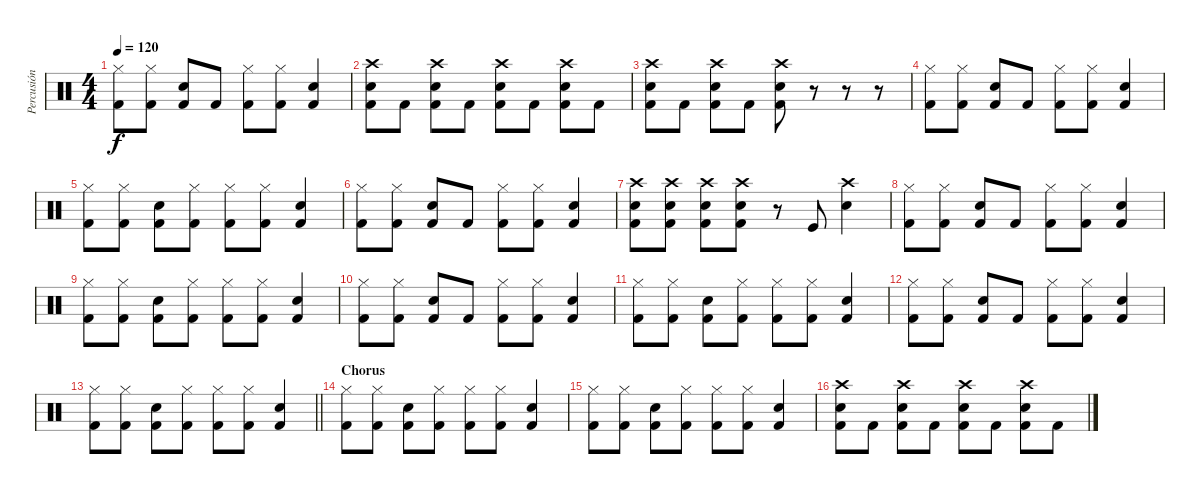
\track ("Percusión" "Percusión") {instrument percussion}
\staff {score}
\articulation defaults
\ts (4 4)
\tempo 120
\clef neutral
\ks c
("Hi-Hat (closed)" "Kick (hit) 2").8{dy f} ("Hi-Hat (closed)" "Kick (hit) 2").8 ("Snare (hit) 2" "Kick (hit) 2").8 "Kick (hit) 2".8 ("Hi-Hat (closed)" "Kick (hit) 2").8 ("Hi-Hat (closed)" "Kick (hit) 2").8 ("Snare (hit) 2" "Kick (hit) 2").4 |
("Crash high (hit)" "Snare (hit) 2" "Kick (hit) 2").8 "Kick (hit) 2".8 ("Crash high (hit)" "Snare (hit) 2" "Kick (hit) 2").8 "Kick (hit) 2".8 ("Crash high (hit)" "Snare (hit) 2" "Kick (hit) 2").8 "Kick (hit) 2".8 ("Crash high (hit)" "Snare (hit) 2" "Kick (hit) 2").8 "Kick (hit) 2".8 |
("Crash high (hit)" "Snare (hit) 2" "Kick (hit) 2").8 "Kick (hit) 2".8 ("Crash high (hit)" "Snare (hit) 2" "Kick (hit) 2").8 "Kick (hit) 2".8 ("Crash high (hit)" "Snare (hit) 2" "Kick (hit) 2").8 r.8 r.8 r.8 |
("Hi-Hat (closed)" "Kick (hit) 2").8 ("Hi-Hat (closed)" "Kick (hit) 2").8 ("Snare (hit) 2" "Kick (hit) 2").8 "Kick (hit) 2".8 ("Hi-Hat (closed)" "Kick (hit) 2").8 ("Hi-Hat (closed)" "Kick (hit) 2").8 ("Snare (hit) 2" "Kick (hit) 2").4 |
("Hi-Hat (closed)" "Kick (hit) 2").8 ("Hi-Hat (closed)" "Kick (hit) 2").8 ("Snare (hit) 2" "Kick (hit) 2").8 ("Hi-Hat (closed)" "Kick (hit) 2").8 ("Hi-Hat (closed)" "Kick (hit) 2").8 ("Hi-Hat (closed)" "Kick (hit) 2").8 ("Snare (hit) 2" "Kick (hit) 2").4 |
("Hi-Hat (closed)" "Kick (hit) 2").8 ("Hi-Hat (closed)" "Kick (hit) 2").8 ("Snare (hit) 2" "Kick (hit) 2").8 "Kick (hit) 2".8 ("Hi-Hat (closed)" "Kick (hit) 2").8 ("Hi-Hat (closed)" "Kick (hit) 2").8 ("Snare (hit) 2" "Kick (hit) 2").4 |
("Crash high (hit)" "Snare (hit) 2" "Kick (hit) 2").8 ("Crash high (hit)" "Snare (hit) 2" "Kick (hit) 2").8 ("Crash high (hit)" "Snare (hit) 2" "Kick (hit) 2").8 ("Crash high (hit)" "Snare (hit) 2" "Kick (hit) 2").8 r.8 "Kick (hit)".8 ("Crash high (hit)" "Snare (hit) 2").4 |
("Hi-Hat (closed)" "Kick (hit) 2").8 ("Hi-Hat (closed)" "Kick (hit) 2").8 ("Snare (hit) 2" "Kick (hit) 2").8 "Kick (hit) 2".8 ("Hi-Hat (closed)" "Kick (hit) 2").8 ("Hi-Hat (closed)" "Kick (hit) 2").8 ("Snare (hit) 2" "Kick (hit) 2").4 |
("Hi-Hat (closed)" "Kick (hit) 2").8 ("Hi-Hat (closed)" "Kick (hit) 2").8 ("Snare (hit) 2" "Kick (hit) 2").8 ("Hi-Hat (closed)" "Kick (hit) 2").8 ("Hi-Hat (closed)" "Kick (hit) 2").8 ("Hi-Hat (closed)" "Kick (hit) 2").8 ("Snare (hit) 2" "Kick (hit) 2").4 |
("Hi-Hat (closed)" "Kick (hit) 2").8 ("Hi-Hat (closed)" "Kick (hit) 2").8 ("Snare (hit) 2" "Kick (hit) 2").8 "Kick (hit) 2".8 ("Hi-Hat (closed)" "Kick (hit) 2").8 ("Hi-Hat (closed)" "Kick (hit) 2").8 ("Snare (hit) 2" "Kick (hit) 2").4 |
("Hi-Hat (closed)" "Kick (hit) 2").8 ("Hi-Hat (closed)" "Kick (hit) 2").8 ("Snare (hit) 2" "Kick (hit) 2").8 ("Hi-Hat (closed)" "Kick (hit) 2").8 ("Hi-Hat (closed)" "Kick (hit) 2").8 ("Hi-Hat (closed)" "Kick (hit) 2").8 ("Snare (hit) 2" "Kick (hit) 2").4 |
("Hi-Hat (closed)" "Kick (hit) 2").8 ("Hi-Hat (closed)" "Kick (hit) 2").8 ("Snare (hit) 2" "Kick (hit) 2").8 "Kick (hit) 2".8 ("Hi-Hat (closed)" "Kick (hit) 2").8 ("Hi-Hat (closed)" "Kick (hit) 2").8 ("Snare (hit) 2" "Kick (hit) 2").4 |
\barLineRight lightlight
("Hi-Hat (closed)" "Kick (hit) 2").8 ("Hi-Hat (closed)" "Kick (hit) 2").8 ("Snare (hit) 2" "Kick (hit) 2").8 ("Hi-Hat (closed)" "Kick (hit) 2").8 ("Hi-Hat (closed)" "Kick (hit) 2").8 ("Hi-Hat (closed)" "Kick (hit) 2").8 ("Snare (hit) 2" "Kick (hit) 2").4 |
\section ("" "Chorus")
("Hi-Hat (closed)" "Kick (hit) 2").8 ("Hi-Hat (closed)" "Kick (hit) 2").8 ("Snare (hit) 2" "Kick (hit) 2").8 ("Hi-Hat (closed)" "Kick (hit) 2").8 ("Hi-Hat (closed)" "Kick (hit) 2").8 ("Hi-Hat (closed)" "Kick (hit) 2").8 ("Snare (hit) 2" "Kick (hit) 2").4 |
("Hi-Hat (closed)" "Kick (hit) 2").8 ("Hi-Hat (closed)" "Kick (hit) 2").8 ("Snare (hit) 2" "Kick (hit) 2").8 ("Hi-Hat (closed)" "Kick (hit) 2").8 ("Hi-Hat (closed)" "Kick (hit) 2").8 ("Hi-Hat (closed)" "Kick (hit) 2").8 ("Snare (hit) 2" "Kick (hit) 2").4 |
("Crash high (hit)" "Snare (hit) 2" "Kick (hit) 2").8 "Kick (hit) 2".8 ("Crash high (hit)" "Snare (hit) 2" "Kick (hit) 2").8 "Kick (hit) 2".8 ("Crash high (hit)" "Snare (hit) 2" "Kick (hit) 2").8 "Kick (hit) 2".8 ("Crash high (hit)" "Snare (hit) 2" "Kick (hit) 2").8 "Kick (hit) 2".8
